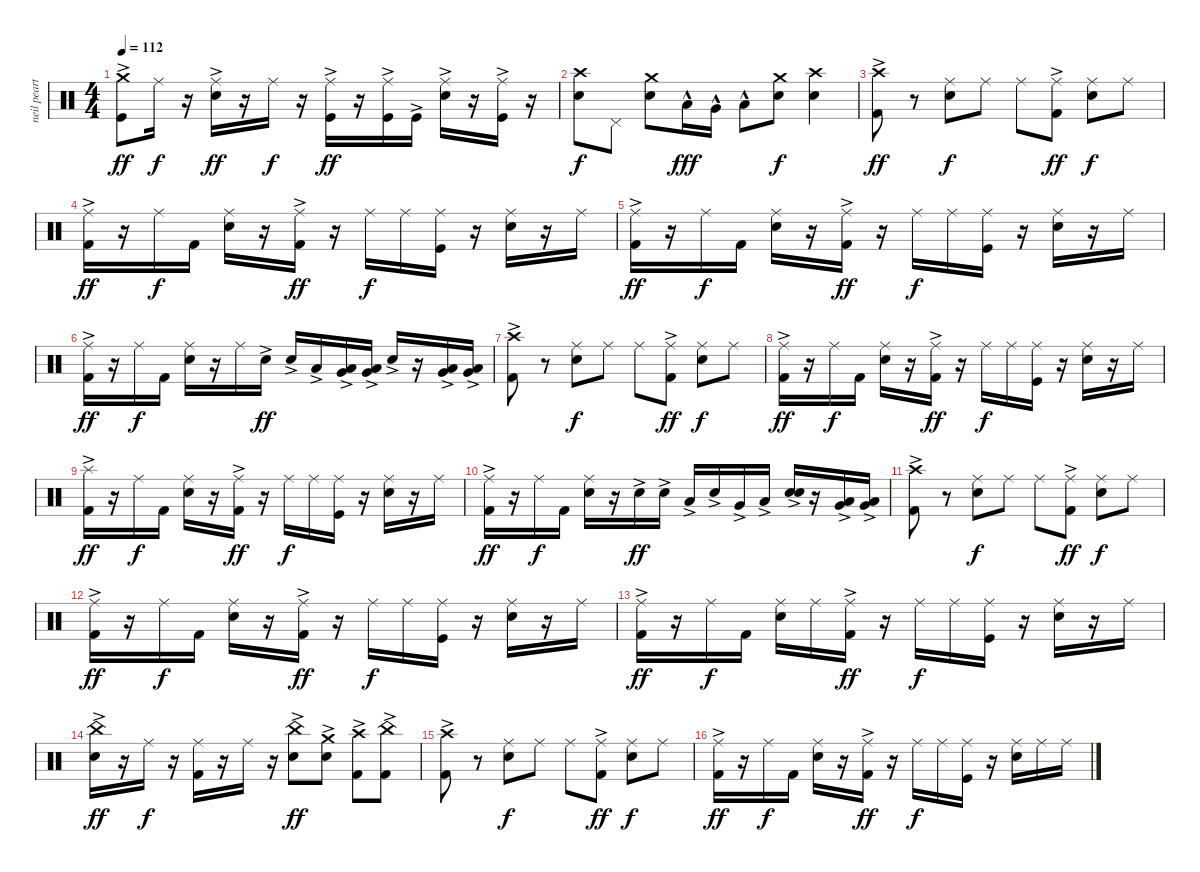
\track ("neil peart" "neil peart") {instrument percussion}
\staff {score}
\articulation defaults
\ts (4 4)
\tempo 112
\clef neutral
\ks c
("Crash medium (hit)" "Kick (hit)"{ac}).8{dy ff} "Ride (middle)".16{dy f} r.16 ("Ride (middle)" "Electric Snare (hit)"{ac}).16{dy ff} r.16 "Ride (middle)".16{dy f} r.16 ("Ride (middle)" "Kick (hit)"{ac}).16{dy ff} r.16 ("Ride (middle)" "Kick (hit)"{ac}).16 "Kick (hit)"{ac}.16 ("Ride (middle)" "Electric Snare (hit)"{ac}).16 r.16 ("Ride (middle)" "Kick (hit)"{ac}).16 r.16 |
("Crash high (hit)" "Electric Snare (hit)").8{dy f} "Pedal Hi-Hat (hit)".8 ("Crash medium (hit)" "Electric Snare (hit)").8 "Low Tom (hit)"{hac}.16{dy fff} "Very Low Tom (hit)"{hac}.16 "Low Floor Tom (hit)"{hac}.8 ("Crash medium (hit)" "Electric Snare (hit)").8{dy f} ("Crash high (hit)" "Electric Snare (hit)").4 |
("Crash high (hit)" "Kick (hit) 2"{ac}).8{dy ff} r.8 ("Ride (middle)" "Electric Snare (hit)").8{dy f} "Ride (middle)".8 "Ride (middle)".8 ("Ride (middle)" "Kick (hit) 2"{ac}).8{dy ff} ("Ride (middle)" "Electric Snare (hit)").8{dy f} "Ride (middle)".8 |
("Ride (middle)" "Kick (hit) 2"{ac}).16{dy ff} r.16 "Ride (middle)".16{dy f} "Kick (hit) 2".16 ("Ride (middle)" "Electric Snare (hit)").16 r.16 ("Ride (middle)" "Kick (hit) 2"{ac}).16{dy ff} r.16 "Ride (middle)".16{dy f} "Ride (middle)".16 ("Ride (middle)" "Kick (hit)").16 r.16 ("Ride (middle)" "Electric Snare (hit)").16 r.16 "Ride (middle)".16 |
("Ride (middle)" "Kick (hit) 2"{ac}).16{dy ff} r.16 "Ride (middle)".16{dy f} "Kick (hit) 2".16 ("Ride (middle)" "Electric Snare (hit)").16 r.16 ("Ride (middle)" "Kick (hit) 2"{ac}).16{dy ff} r.16 "Ride (middle)".16{dy f} "Ride (middle)".16 ("Ride (middle)" "Kick (hit)").16 r.16 ("Ride (middle)" "Electric Snare (hit)").16 r.16 "Ride (middle)".16 |
("Ride (middle)" "Kick (hit) 2"{ac}).16{dy ff} r.16 "Ride (middle)".16{dy f} "Kick (hit) 2".16 ("Ride (middle)" "Electric Snare (hit)").16 r.16 "Ride (middle)".16 "Electric Snare (hit)"{ac}.16{dy ff} "Electric Snare (hit)"{ac}.16 "Low Tom (hit)"{ac}.16 ("Very Low Tom (hit)"{ac} "Low Tom (hit)"{ac}).16 ("Very Low Tom (hit)"{ac} "Low Tom (hit)"{ac}).16 "Electric Snare (hit)"{ac}.16 r.16 ("Very Low Tom (hit)"{ac} "Low Floor Tom (hit)"{ac}).16 ("Very Low Tom (hit)"{ac} "Low Floor Tom (hit)"{ac}).16 |
("Crash high (hit)" "Kick (hit) 2"{ac}).8 r.8 ("Ride (middle)" "Electric Snare (hit)").8{dy f} "Ride (middle)".8 "Ride (middle)".8 ("Ride (middle)" "Kick (hit) 2"{ac}).8{dy ff} ("Ride (middle)" "Electric Snare (hit)").8{dy f} "Ride (middle)".8 |
("Ride (middle)" "Kick (hit) 2"{ac}).16{dy ff} r.16 "Ride (middle)".16{dy f} "Kick (hit) 2".16 ("Ride (middle)" "Electric Snare (hit)").16 r.16 ("Ride (middle)" "Kick (hit) 2"{ac}).16{dy ff} r.16 "Ride (middle)".16{dy f} "Ride (middle)".16 ("Ride (middle)" "Kick (hit)").16 r.16 ("Ride (middle)" "Electric Snare (hit)").16 r.16 "Ride (middle)".16 |
("Splash (hit)" "Kick (hit) 2"{ac}).16{dy ff} r.16 "Ride (middle)".16{dy f} "Kick (hit) 2".16 ("Ride (middle)" "Electric Snare (hit)").16 r.16 ("Ride (middle)" "Kick (hit) 2"{ac}).16{dy ff} r.16 "Ride (middle)".16{dy f} "Ride (middle)".16 ("Ride (middle)" "Kick (hit)").16 r.16 ("Ride (middle)" "Electric Snare (hit)").16 r.16 "Ride (middle)".16 |
("Ride (middle)" "Kick (hit) 2"{ac}).16{dy ff} r.16 "Ride (middle)".16{dy f} "Kick (hit) 2".16 ("Ride (middle)" "Electric Snare (hit)").16 r.16 "Electric Snare (hit)"{ac}.16{dy ff} "Electric Snare (hit)"{ac}.16 "Low Tom (hit)"{ac}.16 "Electric Snare (hit)"{ac}.16 "Very Low Tom (hit)"{ac}.16 "Low Floor Tom (hit)"{ac}.16 ("Electric Snare (hit)" "Electric Snare (hit)"{ac}).16 r.16 ("Very Low Tom (hit)"{ac} "Low Floor Tom (hit)"{ac}).16 ("Very Low Tom (hit)"{ac} "Low Floor Tom (hit)"{ac}).16 |
("Crash high (hit)" "Kick (hit) 2"{ac}).8 r.8 ("Ride (middle)" "Electric Snare (hit)").8{dy f} "Ride (middle)".8 "Ride (middle)".8 ("Ride (middle)" "Kick (hit) 2"{ac}).8{dy ff} ("Ride (middle)" "Electric Snare (hit)").8{dy f} "Ride (middle)".8 |
("Ride (middle)" "Kick (hit) 2"{ac}).16{dy ff} r.16 "Ride (middle)".16{dy f} "Kick (hit) 2".16 ("Ride (middle)" "Electric Snare (hit)").16 r.16 ("Ride (middle)" "Kick (hit) 2"{ac}).16{dy ff} r.16 "Ride (middle)".16{dy f} "Ride (middle)".16 ("Ride (middle)" "Kick (hit)").16 r.16 ("Ride (middle)" "Electric Snare (hit)").16 r.16 "Ride (middle)".16 |
("Ride (middle)" "Kick (hit) 2"{ac}).16{dy ff} r.16 "Ride (middle)".16{dy f} "Kick (hit) 2".16 ("Ride (middle)" "Electric Snare (hit)").16 "Ride (middle)".16 ("Ride (middle)" "Kick (hit) 2"{ac}).16{dy ff} r.16 "Ride (middle)".16{dy f} "Ride (middle)".16 ("Ride (middle)" "Kick (hit)").16 r.16 ("Ride (middle)" "Electric Snare (hit)").16 r.16 "Ride (middle)".16 |
("China (hit)" "Electric Snare (hit)"{ac}).16{dy ff} r.16 "Ride (middle)".16{dy f} r.16 ("Ride (middle)" "Kick (hit) 2").16 r.16 "Ride (middle)".16 r.16 ("China (hit)" "Electric Snare (hit)"{ac}).8{dy ff} ("Crash medium (hit)" "Electric Snare (hit)"{ac}).8 ("Crash high (hit)" "Kick (hit) 2"{ac}).8 ("China (hit)" "Kick (hit) 2"{ac}).8 |
("Crash high (hit)" "Kick (hit) 2"{ac}).8 r.8 ("Ride (middle)" "Electric Snare (hit)").8{dy f} "Ride (middle)".8 "Ride (middle)".8 ("Ride (middle)" "Kick (hit) 2"{ac}).8{dy ff} ("Ride (middle)" "Electric Snare (hit)").8{dy f} "Ride (middle)".8 |
("Ride (middle)" "Kick (hit) 2"{ac}).16{dy ff} r.16 "Ride (middle)".16{dy f} "Kick (hit) 2".16 ("Ride (middle)" "Electric Snare (hit)").16 r.16 ("Ride (middle)" "Kick (hit) 2"{ac}).16{dy ff} r.16 "Ride (middle)".16{dy f} "Ride (middle)".16 ("Ride (middle)" "Kick (hit)").16 r.16 ("Ride (middle)" "Electric Snare (hit)").16 "Ride (middle)".16 "Ride (middle)".16
